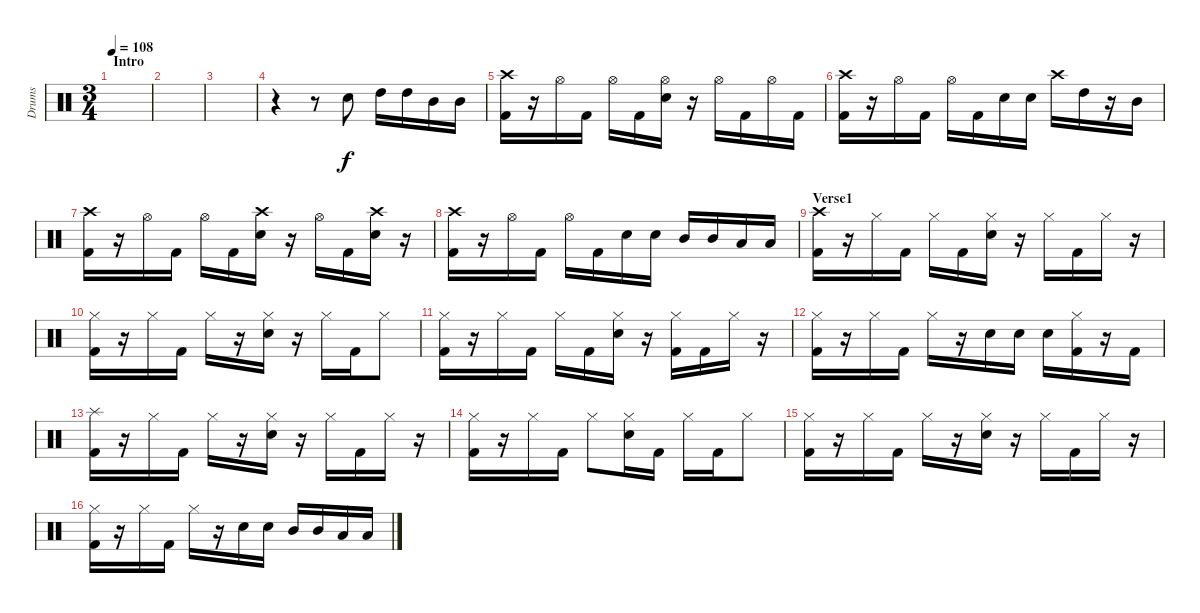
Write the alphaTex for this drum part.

\track ("Drums" "Drums") {instrument percussion}
\staff {score}
\articulation defaults
\ts (3 4)
\section ("" "Intro")
\tempo 108
\clef neutral
\ks c
|
|
|
r.4 r.8 "Electric Snare (hit)".8 "High Tom (hit)".16{dy f} "High Tom (hit)".16 "Mid Tom (hit)".16 "Mid Tom (hit)".16 |
("Crash high (hit)" "Kick (hit) 2").16 r.16 "Hi-Hat (open)".16 "Kick (hit) 2".16 "Hi-Hat (open)".16 "Kick (hit) 2".16 ("Hi-Hat (open)" "Electric Snare (hit)").16 r.16 "Hi-Hat (open)".16 "Kick (hit) 2".16 "Hi-Hat (open)".16 "Kick (hit) 2".16 |
("Crash high (hit)" "Kick (hit) 2").16 r.16 "Hi-Hat (open)".16 "Kick (hit) 2".16 "Hi-Hat (open)".16 "Kick (hit) 2".16 "Electric Snare (hit)".16 "Electric Snare (hit)".16 "Crash high (hit)".16 "High Tom (hit)".16 r.16 "Mid Tom (hit)".16 |
("Crash high (hit)" "Kick (hit) 2").16 r.16 "Hi-Hat (open)".16 "Kick (hit) 2".16 "Hi-Hat (open)".16 "Kick (hit) 2".16 ("Crash high (hit)" "Electric Snare (hit)").16 r.16 "Hi-Hat (open)".16 "Kick (hit) 2".16 ("Crash high (hit)" "Electric Snare (hit)").16 r.16 |
("Crash high (hit)" "Kick (hit) 2").16 r.16 "Hi-Hat (open)".16 "Kick (hit) 2".16 "Hi-Hat (open)".16 "Kick (hit) 2".16 "Electric Snare (hit)".16 "Electric Snare (hit)".16 "Mid Tom (hit)".16 "Mid Tom (hit)".16 "Low Tom (hit)".16 "Low Tom (hit)".16 |
\section ("" "Verse1")
("Crash high (hit)" "Kick (hit) 2").16 r.16 "Hi-Hat (closed)".16 "Kick (hit) 2".16 "Hi-Hat (closed)".16 "Kick (hit) 2".16 ("Hi-Hat (closed)" "Electric Snare (hit)").16 r.16 "Hi-Hat (closed)".16 "Kick (hit) 2".16 "Hi-Hat (closed)".16 r.16 |
("Hi-Hat (closed)" "Kick (hit) 2").16 r.16 "Hi-Hat (closed)".16 "Kick (hit) 2".16 "Hi-Hat (closed)".16 r.16 ("Hi-Hat (closed)" "Electric Snare (hit)").16 r.16 "Hi-Hat (closed)".16 "Kick (hit) 2".16 "Hi-Hat (closed)".8 |
("Hi-Hat (closed)" "Kick (hit) 2").16 r.16 "Hi-Hat (closed)".16 "Kick (hit) 2".16 "Hi-Hat (closed)".16 "Kick (hit) 2".16 ("Hi-Hat (closed)" "Electric Snare (hit)").16 r.16 ("Hi-Hat (closed)" "Kick (hit) 2").16 "Kick (hit) 2".16 "Hi-Hat (closed)".16 r.16 |
("Hi-Hat (closed)" "Kick (hit) 2").16 r.16 "Hi-Hat (closed)".16 "Kick (hit) 2".16 "Hi-Hat (closed)".16 r.16 "Electric Snare (hit)".16 "Electric Snare (hit)".16 "Electric Snare (hit)".16 ("Hi-Hat (closed)" "Kick (hit) 2").16 r.16 "Kick (hit) 2".16 |
("Splash (hit)" "Kick (hit) 2").16 r.16 "Hi-Hat (closed)".16 "Kick (hit) 2".16 "Hi-Hat (closed)".16 r.16 ("Hi-Hat (closed)" "Electric Snare (hit)").16 r.16 "Hi-Hat (closed)".16 "Kick (hit) 2".16 "Hi-Hat (closed)".16 r.16 |
("Hi-Hat (closed)" "Kick (hit) 2").16 r.16 "Hi-Hat (closed)".16 "Kick (hit) 2".16 "Hi-Hat (closed)".8 ("Hi-Hat (closed)" "Electric Snare (hit)").16 "Kick (hit) 2".16 "Hi-Hat (closed)".16 "Kick (hit) 2".16 "Hi-Hat (closed)".8 |
("Hi-Hat (closed)" "Kick (hit) 2").16 r.16 "Hi-Hat (closed)".16 "Kick (hit) 2".16 "Hi-Hat (closed)".16 r.16 ("Hi-Hat (closed)" "Electric Snare (hit)").16 r.16 "Hi-Hat (closed)".16 "Kick (hit) 2".16 "Hi-Hat (closed)".16 r.16 |
("Hi-Hat (closed)" "Kick (hit) 2").16 r.16 "Hi-Hat (closed)".16 "Kick (hit) 2".16 "Hi-Hat (closed)".16 r.16 "Electric Snare (hit)".16 "Electric Snare (hit)".16 "Mid Tom (hit)".16 "Mid Tom (hit)".16 "Low Tom (hit)".16 "Low Tom (hit)".16
